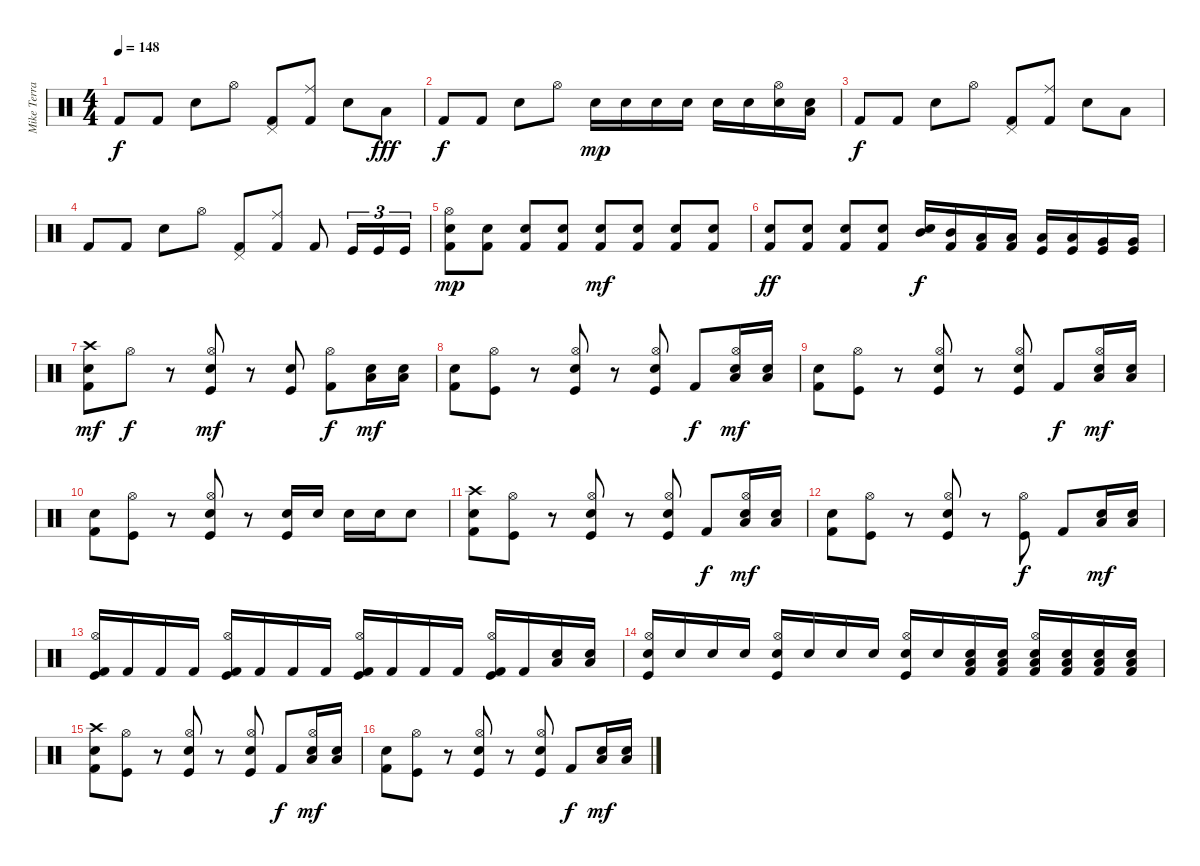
\track ("Mike Terrana" "Mike Terra") {instrument percussion}
\staff {score}
\articulation defaults
\ts (4 4)
\tempo 148
\clef neutral
\ks c "Kick (hit) 2".8{dy f} "Kick (hit) 2".8 "Snare (hit) 2".8 "Hi-Hat (open)".8
("Pedal Hi-Hat (hit)" "Kick (hit) 2").8 ("Ride (middle)" "Kick (hit) 2").8 "Snare (hit) 2".8 "Low Floor Tom (hit)".8{dy fff} |
"Kick (hit) 2".8{dy f} "Kick (hit) 2".8 "Snare (hit) 2".8 "Hi-Hat (open)".8 "Snare (hit) 2".16{dy mp} "Snare (hit) 2".16 "Snare (hit) 2".16 "Snare (hit) 2".16 "Snare (hit) 2".16 "Snare (hit) 2".16 ("Hi-Hat (open)" "Snare (hit) 2").16 ("Low Floor Tom (hit)" "Snare (hit) 2").16 |
"Kick (hit) 2".8{dy f} "Kick (hit) 2".8 "Snare (hit) 2".8 "Hi-Hat (open)".8 ("Pedal Hi-Hat (hit)" "Kick (hit) 2").8 ("Ride (middle)" "Kick (hit) 2").8 "Snare (hit) 2".8 "Low Floor Tom (hit)".8 |
"Kick (hit) 2".8 "Kick (hit) 2".8 "Snare (hit) 2".8 "Hi-Hat (open)".8 ("Pedal Hi-Hat (hit)" "Kick (hit) 2").8 ("Ride (middle)" "Kick (hit) 2").8 "Kick (hit) 2".8 "Kick (hit)".16{tu (3 2)} "Kick (hit)".16{tu (3 2)} "Kick (hit)".16{tu (3 2)} |
("Hi-Hat (open)" "Kick (hit) 2" "Snare (hit) 2").8{dy mp} ("Kick (hit) 2" "Snare (hit) 2").8 ("Kick (hit) 2" "Snare (hit) 2").8 ("Kick (hit) 2" "Snare (hit) 2").8 ("Kick (hit) 2" "Snare (hit) 2").8{dy mf} ("Kick (hit) 2" "Snare (hit) 2").8 ("Kick (hit) 2" "Snare (hit) 2").8 ("Kick (hit) 2" "Snare (hit) 2").8 |
("Kick (hit) 2" "Snare (hit) 2").8{dy ff} ("Kick (hit) 2" "Snare (hit) 2").8 ("Kick (hit) 2" "Snare (hit) 2").8 ("Kick (hit) 2" "Snare (hit) 2").8 ("Mid Tom (hit)" "Snare (hit) 2").16{dy f} ("Mid Tom (hit)" "Kick (hit) 2").16 ("Low Tom (hit)" "Kick (hit) 2").16 ("Low Tom (hit)" "Kick (hit) 2").16 ("Low Tom (hit)" "Kick (hit)").16 ("Low Tom (hit)" "Kick (hit)").16 ("Very Low Tom (hit)" "Kick (hit)").16 ("Very Low Tom (hit)" "Kick (hit)").16 |
("Crash high (hit)" "Kick (hit) 2" "Snare (hit) 2").8{dy mf} "Hi-Hat (open)".8{dy f} r.8 ("Hi-Hat (open)" "Kick (hit)" "Snare (hit) 2").8{dy mf} r.8 ("Kick (hit)" "Snare (hit) 2").8 ("Hi-Hat (open)" "Kick (hit) 2").8{dy f} ("Low Floor Tom (hit)" "Snare (hit) 2").16{dy mf} ("Low Floor Tom (hit)" "Snare (hit) 2").16 |
("Kick (hit) 2" "Snare (hit) 2").8 ("Hi-Hat (open)" "Kick (hit)").8 r.8 ("Hi-Hat (open)" "Kick (hit)" "Snare (hit) 2").8 r.8 ("Hi-Hat (open)" "Kick (hit)" "Snare (hit) 2").8 "Kick (hit) 2".8{dy f} ("Hi-Hat (open)" "Low Floor Tom (hit)" "Snare (hit) 2").16{dy mf} ("Low Floor Tom (hit)" "Snare (hit) 2").16 |
("Kick (hit) 2" "Snare (hit) 2").8 ("Hi-Hat (open)" "Kick (hit)").8 r.8 ("Hi-Hat (open)" "Kick (hit)" "Snare (hit) 2").8 r.8 ("Hi-Hat (open)" "Kick (hit)" "Snare (hit) 2").8 "Kick (hit) 2".8{dy f} ("Hi-Hat (open)" "Low Floor Tom (hit)" "Snare (hit) 2").16{dy mf} ("Low Floor Tom (hit)" "Snare (hit) 2").16 |
("Kick (hit) 2" "Snare (hit) 2").8 ("Hi-Hat (open)" "Kick (hit)").8 r.8 ("Hi-Hat (open)" "Kick (hit)" "Snare (hit) 2").8 r.8 ("Kick (hit)" "Snare (hit) 2").16 "Snare (hit) 2".16 "Snare (hit) 2".16 "Snare (hit) 2".16 "Snare (hit) 2".8 |
("Crash high (hit)" "Kick (hit) 2" "Snare (hit) 2").8 ("Hi-Hat (open)" "Kick (hit)").8 r.8 ("Hi-Hat (open)" "Kick (hit)" "Snare (hit) 2").8 r.8 ("Hi-Hat (open)" "Kick (hit)" "Snare (hit) 2").8 "Kick (hit) 2".8{dy f} ("Hi-Hat (open)" "Low Floor Tom (hit)" "Snare (hit) 2").16{dy mf} ("Low Floor Tom (hit)" "Snare (hit) 2").16 |
("Kick (hit) 2" "Snare (hit) 2").8 ("Hi-Hat (open)" "Kick (hit)").8 r.8 ("Hi-Hat (open)" "Kick (hit)" "Snare (hit) 2").8 r.8 ("Hi-Hat (open)" "Kick (hit)").8{dy f} "Kick (hit) 2".8 ("Low Floor Tom (hit)" "Snare (hit) 2").16{dy mf} ("Low Floor Tom (hit)" "Snare (hit) 2").16 |
("Hi-Hat (open)" "Kick (hit)" "Kick (hit) 2").16 "Kick (hit) 2".16 "Kick (hit) 2".16 "Kick (hit) 2".16 ("Hi-Hat (open)" "Kick (hit)" "Kick (hit) 2").16 "Kick (hit) 2".16 "Kick (hit) 2".16 "Kick (hit) 2".16 ("Hi-Hat (open)" "Kick (hit)" "Kick (hit) 2").16 "Kick (hit) 2".16 "Kick (hit) 2".16 "Kick (hit) 2".16 ("Hi-Hat (open)" "Kick (hit)" "Kick (hit) 2").16 "Kick (hit) 2".16 ("Low Floor Tom (hit)" "Snare (hit) 2").16 ("Low Floor Tom (hit)" "Snare (hit) 2").16 |
("Hi-Hat (open)" "Kick (hit)" "Snare (hit) 2").16 "Snare (hit) 2".16 "Snare (hit) 2".16 "Snare (hit) 2".16 ("Hi-Hat (open)" "Kick (hit)" "Snare (hit) 2").16 "Snare (hit) 2".16 "Snare (hit) 2".16 "Snare (hit) 2".16 ("Hi-Hat (open)" "Kick (hit)" "Snare (hit) 2").16 "Snare (hit) 2".16 ("Low Floor Tom (hit)" "Kick (hit) 2" "Snare (hit) 2").16 ("Low Floor Tom (hit)" "Kick (hit) 2" "Snare (hit) 2").16 ("Hi-Hat (open)" "Low Floor Tom (hit)" "Kick (hit) 2" "Snare (hit) 2").16 ("Low Floor Tom (hit)" "Kick (hit) 2" "Snare (hit) 2").16 ("Low Floor Tom (hit)" "Kick (hit) 2" "Snare (hit) 2").16 ("Low Floor Tom (hit)" "Kick (hit) 2" "Snare (hit) 2").16 |
("Crash high (hit)" "Kick (hit) 2" "Snare (hit) 2").8 ("Hi-Hat (open)" "Kick (hit)").8 r.8 ("Hi-Hat (open)" "Kick (hit)" "Snare (hit) 2").8 r.8 ("Hi-Hat (open)" "Kick (hit)" "Snare (hit) 2").8 "Kick (hit) 2".8{dy f} ("Hi-Hat (open)" "Low Floor Tom (hit)" "Snare (hit) 2").16{dy mf} ("Low Floor Tom (hit)" "Snare (hit) 2").16 |
("Kick (hit) 2" "Snare (hit) 2").8 ("Hi-Hat (open)" "Kick (hit)").8 r.8 ("Hi-Hat (open)" "Kick (hit)" "Snare (hit) 2").8 r.8 ("Hi-Hat (open)" "Kick (hit)" "Snare (hit) 2").8 "Kick (hit) 2".8{dy f} ("Low Floor Tom (hit)" "Snare (hit) 2").16{dy mf} ("Low Floor Tom (hit)" "Snare (hit) 2").16
